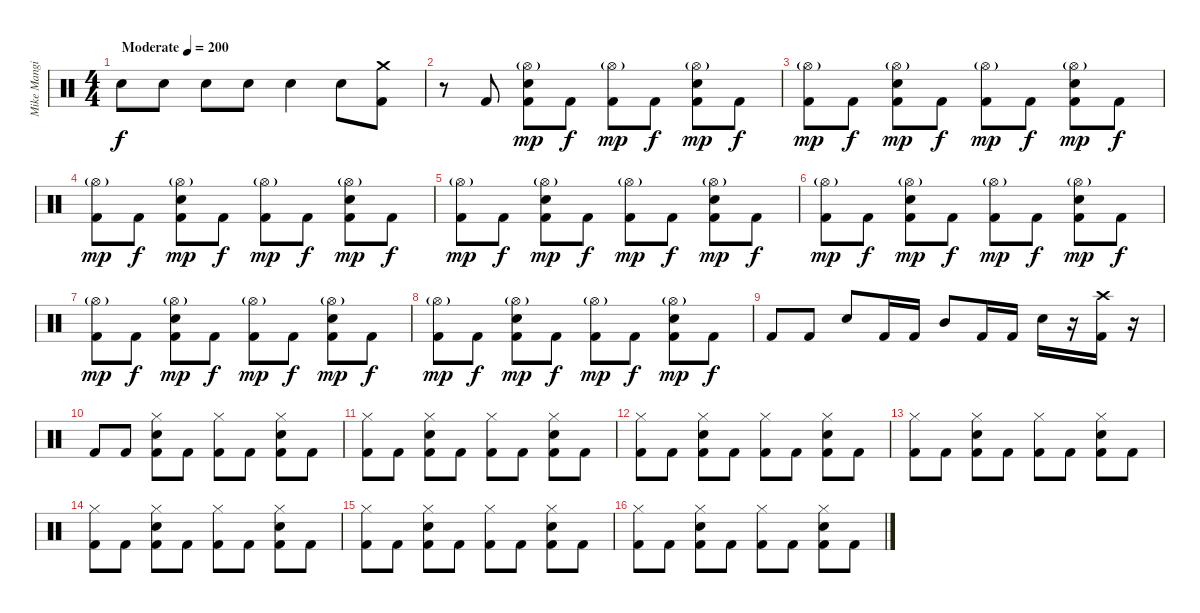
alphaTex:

\track ("Mike Mangini" "Mike Mangi") {instrument percussion}
\staff {score}
\articulation defaults
\ts (4 4)
\tempo (200 "Moderate")
\clef neutral
\ks c "Electric Snare (hit)".8{dy f} "Electric Snare (hit)".8 "Electric Snare (hit)".8 "Electric Snare (hit)".8 "Electric Snare (hit)".4 "Electric Snare (hit)".8
("Crash medium (hit)" "Kick (hit) 2").8 |
r.8 "Kick (hit) 2".8 ("Hi-Hat (open)"{g} "Electric Snare (hit)" "Kick (hit) 2").8{dy mp} "Kick (hit) 2".8{dy f} ("Hi-Hat (open)"{g} "Kick (hit) 2").8{dy mp} "Kick (hit) 2".8{dy f} ("Hi-Hat (open)"{g} "Electric Snare (hit)" "Kick (hit) 2").8{dy mp} "Kick (hit) 2".8{dy f} |
("Hi-Hat (open)"{g} "Kick (hit) 2").8{dy mp} "Kick (hit) 2".8{dy f} ("Hi-Hat (open)"{g} "Electric Snare (hit)" "Kick (hit) 2").8{dy mp} "Kick (hit) 2".8{dy f} ("Hi-Hat (open)"{g} "Kick (hit) 2").8{dy mp} "Kick (hit) 2".8{dy f} ("Hi-Hat (open)"{g} "Electric Snare (hit)" "Kick (hit) 2").8{dy mp} "Kick (hit) 2".8{dy f} |
("Hi-Hat (open)"{g} "Kick (hit) 2").8{dy mp} "Kick (hit) 2".8{dy f} ("Hi-Hat (open)"{g} "Electric Snare (hit)" "Kick (hit) 2").8{dy mp} "Kick (hit) 2".8{dy f} ("Hi-Hat (open)"{g} "Kick (hit) 2").8{dy mp} "Kick (hit) 2".8{dy f} ("Hi-Hat (open)"{g} "Electric Snare (hit)" "Kick (hit) 2").8{dy mp} "Kick (hit) 2".8{dy f} |
("Hi-Hat (open)"{g} "Kick (hit) 2").8{dy mp} "Kick (hit) 2".8{dy f} ("Hi-Hat (open)"{g} "Electric Snare (hit)" "Kick (hit) 2").8{dy mp} "Kick (hit) 2".8{dy f} ("Hi-Hat (open)"{g} "Kick (hit) 2").8{dy mp} "Kick (hit) 2".8{dy f} ("Hi-Hat (open)"{g} "Electric Snare (hit)" "Kick (hit) 2").8{dy mp} "Kick (hit) 2".8{dy f} |
("Hi-Hat (open)"{g} "Kick (hit) 2").8{dy mp} "Kick (hit) 2".8{dy f} ("Hi-Hat (open)"{g} "Electric Snare (hit)" "Kick (hit) 2").8{dy mp} "Kick (hit) 2".8{dy f} ("Hi-Hat (open)"{g} "Kick (hit) 2").8{dy mp} "Kick (hit) 2".8{dy f} ("Hi-Hat (open)"{g} "Electric Snare (hit)" "Kick (hit) 2").8{dy mp} "Kick (hit) 2".8{dy f} |
("Hi-Hat (open)"{g} "Kick (hit) 2").8{dy mp} "Kick (hit) 2".8{dy f} ("Hi-Hat (open)"{g} "Electric Snare (hit)" "Kick (hit) 2").8{dy mp} "Kick (hit) 2".8{dy f} ("Hi-Hat (open)"{g} "Kick (hit) 2").8{dy mp} "Kick (hit) 2".8{dy f} ("Hi-Hat (open)"{g} "Electric Snare (hit)" "Kick (hit) 2").8{dy mp} "Kick (hit) 2".8{dy f} |
("Hi-Hat (open)"{g} "Kick (hit) 2").8{dy mp} "Kick (hit) 2".8{dy f} ("Hi-Hat (open)"{g} "Electric Snare (hit)" "Kick (hit) 2").8{dy mp} "Kick (hit) 2".8{dy f} ("Hi-Hat (open)"{g} "Kick (hit) 2").8{dy mp} "Kick (hit) 2".8{dy f} ("Hi-Hat (open)"{g} "Electric Snare (hit)" "Kick (hit) 2").8{dy mp} "Kick (hit) 2".8{dy f} |
"Kick (hit) 2".8 "Kick (hit) 2".8 "Electric Snare (hit)".8 "Kick (hit) 2".16 "Kick (hit) 2".16 "Mid Tom (hit)".8 "Kick (hit) 2".16 "Kick (hit) 2".16 "Electric Snare (hit)".16 r.16 ("Crash high (hit)" "Kick (hit) 2").16 r.16 |
"Kick (hit) 2".8 "Kick (hit) 2".8 ("Hi-Hat (closed)" "Electric Snare (hit)" "Kick (hit) 2").8 "Kick (hit) 2".8 ("Hi-Hat (closed)" "Kick (hit) 2").8 "Kick (hit) 2".8 ("Hi-Hat (closed)" "Electric Snare (hit)" "Kick (hit) 2").8 "Kick (hit) 2".8 |
("Hi-Hat (closed)" "Kick (hit) 2").8 "Kick (hit) 2".8 ("Hi-Hat (closed)" "Electric Snare (hit)" "Kick (hit) 2").8 "Kick (hit) 2".8 ("Hi-Hat (closed)" "Kick (hit) 2").8 "Kick (hit) 2".8 ("Hi-Hat (closed)" "Electric Snare (hit)" "Kick (hit) 2").8 "Kick (hit) 2".8 |
("Hi-Hat (closed)" "Kick (hit) 2").8 "Kick (hit) 2".8 ("Hi-Hat (closed)" "Electric Snare (hit)" "Kick (hit) 2").8 "Kick (hit) 2".8 ("Hi-Hat (closed)" "Kick (hit) 2").8 "Kick (hit) 2".8 ("Hi-Hat (closed)" "Electric Snare (hit)" "Kick (hit) 2").8 "Kick (hit) 2".8 |
("Hi-Hat (closed)" "Kick (hit) 2").8 "Kick (hit) 2".8 ("Hi-Hat (closed)" "Electric Snare (hit)" "Kick (hit) 2").8 "Kick (hit) 2".8 ("Hi-Hat (closed)" "Kick (hit) 2").8 "Kick (hit) 2".8 ("Hi-Hat (closed)" "Electric Snare (hit)" "Kick (hit) 2").8 "Kick (hit) 2".8 |
("Hi-Hat (closed)" "Kick (hit) 2").8 "Kick (hit) 2".8 ("Hi-Hat (closed)" "Electric Snare (hit)" "Kick (hit) 2").8 "Kick (hit) 2".8 ("Hi-Hat (closed)" "Kick (hit) 2").8 "Kick (hit) 2".8 ("Hi-Hat (closed)" "Electric Snare (hit)" "Kick (hit) 2").8 "Kick (hit) 2".8 |
("Hi-Hat (closed)" "Kick (hit) 2").8 "Kick (hit) 2".8 ("Hi-Hat (closed)" "Electric Snare (hit)" "Kick (hit) 2").8 "Kick (hit) 2".8 ("Hi-Hat (closed)" "Kick (hit) 2").8 "Kick (hit) 2".8 ("Hi-Hat (closed)" "Electric Snare (hit)" "Kick (hit) 2").8 "Kick (hit) 2".8 |
("Hi-Hat (closed)" "Kick (hit) 2").8 "Kick (hit) 2".8 ("Hi-Hat (closed)" "Electric Snare (hit)" "Kick (hit) 2").8 "Kick (hit) 2".8 ("Hi-Hat (closed)" "Kick (hit) 2").8 "Kick (hit) 2".8 ("Hi-Hat (closed)" "Electric Snare (hit)" "Kick (hit) 2").8 "Kick (hit) 2".8
